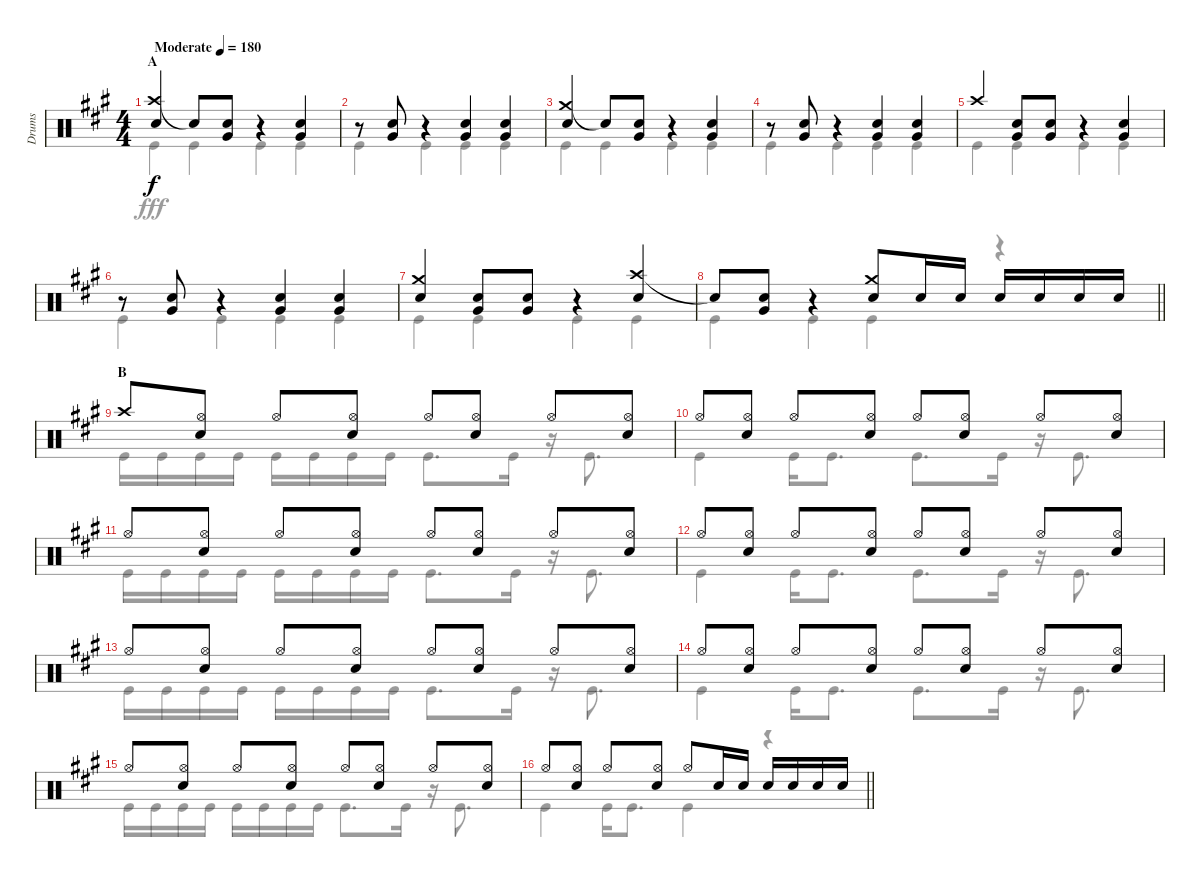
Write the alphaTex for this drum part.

\track ("Drums" "Drums") {instrument percussion}
\staff {score}
\articulation defaults
\voice
\ts (4 4)
\section ("" "A")
\tempo (180 "Moderate")
\clef neutral
\ks a
("Crash high (hit)" "Snare (hit) 2").4{dy f} "Snare (hit)"{t}.8 ("Snare (hit) 2" "Very Low Tom (hit)").8 r.4 ("Snare (hit) 2" "Very Low Tom (hit)").4 |
r.8 ("Snare (hit) 2" "Very Low Tom (hit)").8 r.4 ("Snare (hit) 2" "Very Low Tom (hit)").4 ("Snare (hit) 2" "Very Low Tom (hit)").4 |
("Crash medium (hit)" "Snare (hit) 2").4 "Snare (hit)"{t}.8 ("Snare (hit) 2" "Very Low Tom (hit)").8 r.4 ("Snare (hit) 2" "Very Low Tom (hit)").4 |
r.8 ("Snare (hit) 2" "Very Low Tom (hit)").8 r.4 ("Snare (hit) 2" "Very Low Tom (hit)").4 ("Snare (hit) 2" "Very Low Tom (hit)").4 |
"Crash high (hit)".4 ("Snare (hit) 2" "Very Low Tom (hit)").8 ("Snare (hit) 2" "Very Low Tom (hit)").8 r.4 ("Snare (hit) 2" "Very Low Tom (hit)").4 |
r.8 ("Snare (hit) 2" "Very Low Tom (hit)").8 r.4 ("Snare (hit) 2" "Very Low Tom (hit)").4 ("Snare (hit) 2" "Very Low Tom (hit)").4 |
("Crash medium (hit)" "Snare (hit) 2").4 ("Snare (hit) 2" "Very Low Tom (hit)").8 ("Snare (hit) 2" "Very Low Tom (hit)").8 r.4 ("Crash high (hit)" "Snare (hit) 2").4 |
\barLineRight lightlight "Snare (hit)"{t}.8
("Snare (hit) 2" "Very Low Tom (hit)").8 r.4 ("Crash medium (hit)" "Snare (hit) 2").8 "Snare (hit) 2".16 "Snare (hit) 2".16 "Snare (hit) 2".16 "Snare (hit) 2".16 "Snare (hit) 2".16 "Snare (hit) 2".16 |
\section ("" "B")
"Crash high (hit)".8 ("Hi-Hat (open)" "Snare (hit) 2").8 "Hi-Hat (open)".8 ("Hi-Hat (open)" "Snare (hit) 2").8 "Hi-Hat (open)".8 ("Hi-Hat (open)" "Snare (hit) 2").8 "Hi-Hat (open)".8 ("Hi-Hat (open)" "Snare (hit) 2").8 |
"Hi-Hat (open)".8 ("Hi-Hat (open)" "Snare (hit) 2").8 "Hi-Hat (open)".8 ("Hi-Hat (open)" "Snare (hit) 2").8 "Hi-Hat (open)".8 ("Hi-Hat (open)" "Snare (hit) 2").8 "Hi-Hat (open)".8 ("Hi-Hat (open)" "Snare (hit) 2").8 |
"Hi-Hat (open)".8 ("Hi-Hat (open)" "Snare (hit) 2").8 "Hi-Hat (open)".8 ("Hi-Hat (open)" "Snare (hit) 2").8 "Hi-Hat (open)".8 ("Hi-Hat (open)" "Snare (hit) 2").8 "Hi-Hat (open)".8 ("Hi-Hat (open)" "Snare (hit) 2").8 |
"Hi-Hat (open)".8 ("Hi-Hat (open)" "Snare (hit) 2").8 "Hi-Hat (open)".8 ("Hi-Hat (open)" "Snare (hit) 2").8 "Hi-Hat (open)".8 ("Hi-Hat (open)" "Snare (hit) 2").8 "Hi-Hat (open)".8 ("Hi-Hat (open)" "Snare (hit) 2").8 |
"Hi-Hat (open)".8 ("Hi-Hat (open)" "Snare (hit) 2").8 "Hi-Hat (open)".8 ("Hi-Hat (open)" "Snare (hit) 2").8 "Hi-Hat (open)".8 ("Hi-Hat (open)" "Snare (hit) 2").8 "Hi-Hat (open)".8 ("Hi-Hat (open)" "Snare (hit) 2").8 |
"Hi-Hat (open)".8 ("Hi-Hat (open)" "Snare (hit) 2").8 "Hi-Hat (open)".8 ("Hi-Hat (open)" "Snare (hit) 2").8 "Hi-Hat (open)".8 ("Hi-Hat (open)" "Snare (hit) 2").8 "Hi-Hat (open)".8 ("Hi-Hat (open)" "Snare (hit) 2").8 |
"Hi-Hat (open)".8 ("Hi-Hat (open)" "Snare (hit) 2").8 "Hi-Hat (open)".8 ("Hi-Hat (open)" "Snare (hit) 2").8 "Hi-Hat (open)".8 ("Hi-Hat (open)" "Snare (hit) 2").8 "Hi-Hat (open)".8 ("Hi-Hat (open)" "Snare (hit) 2").8 |
\barLineRight lightlight "Hi-Hat (open)".8
("Hi-Hat (open)" "Snare (hit) 2").8 "Hi-Hat (open)".8 ("Hi-Hat (open)" "Snare (hit) 2").8 "Hi-Hat (open)".8 "Snare (hit) 2".16 "Snare (hit) 2".16 "Snare (hit) 2".16 "Snare (hit) 2".16 "Snare (hit) 2".16 "Snare (hit) 2".16
\voice
\clef neutral
\ottava regular
\simile none
\ks a "Kick (hit)".4{dy fff} "Kick (hit)".4 "Kick (hit)".4 "Kick (hit)".4
|
"Kick (hit)".4 "Kick (hit)".4 "Kick (hit)".4 "Kick (hit)".4 |
"Kick (hit)".4 "Kick (hit)".4 "Kick (hit)".4 "Kick (hit)".4 |
"Kick (hit)".4 "Kick (hit)".4 "Kick (hit)".4 "Kick (hit)".4 |
"Kick (hit)".4 "Kick (hit)".4 "Kick (hit)".4 "Kick (hit)".4 |
"Kick (hit)".4 "Kick (hit)".4 "Kick (hit)".4 "Kick (hit)".4 |
"Kick (hit)".4 "Kick (hit)".4 "Kick (hit)".4 "Kick (hit)".4 |
\barLineRight lightlight "Kick (hit)".4 "Kick (hit)".4 "Kick (hit)".4
r.4 |
"Kick (hit)".16 "Kick (hit)".16 "Kick (hit)".16 "Kick (hit)".16 "Kick (hit)".16 "Kick (hit)".16 "Kick (hit)".16 "Kick (hit)".16 "Kick (hit)".8{d} "Kick (hit)".16 r.16 "Kick (hit)".8{d} |
"Kick (hit)".4 "Kick (hit)".16 "Kick (hit)".8{d} "Kick (hit)".8{d} "Kick (hit)".16 r.16 "Kick (hit)".8{d} |
"Kick (hit)".16 "Kick (hit)".16 "Kick (hit)".16 "Kick (hit)".16 "Kick (hit)".16 "Kick (hit)".16 "Kick (hit)".16 "Kick (hit)".16 "Kick (hit)".8{d} "Kick (hit)".16 r.16 "Kick (hit)".8{d} |
"Kick (hit)".4 "Kick (hit)".16 "Kick (hit)".8{d} "Kick (hit)".8{d} "Kick (hit)".16 r.16 "Kick (hit)".8{d} |
"Kick (hit)".16 "Kick (hit)".16 "Kick (hit)".16 "Kick (hit)".16 "Kick (hit)".16 "Kick (hit)".16 "Kick (hit)".16 "Kick (hit)".16 "Kick (hit)".8{d} "Kick (hit)".16 r.16 "Kick (hit)".8{d} |
"Kick (hit)".4 "Kick (hit)".16 "Kick (hit)".8{d} "Kick (hit)".8{d} "Kick (hit)".16 r.16 "Kick (hit)".8{d} |
"Kick (hit)".16 "Kick (hit)".16 "Kick (hit)".16 "Kick (hit)".16 "Kick (hit)".16 "Kick (hit)".16 "Kick (hit)".16 "Kick (hit)".16 "Kick (hit)".8{d} "Kick (hit)".16 r.16 "Kick (hit)".8{d} |
\barLineRight lightlight "Kick (hit)".4 "Kick (hit)".16 "Kick (hit)".8{d} "Kick (hit)".4
r.4
